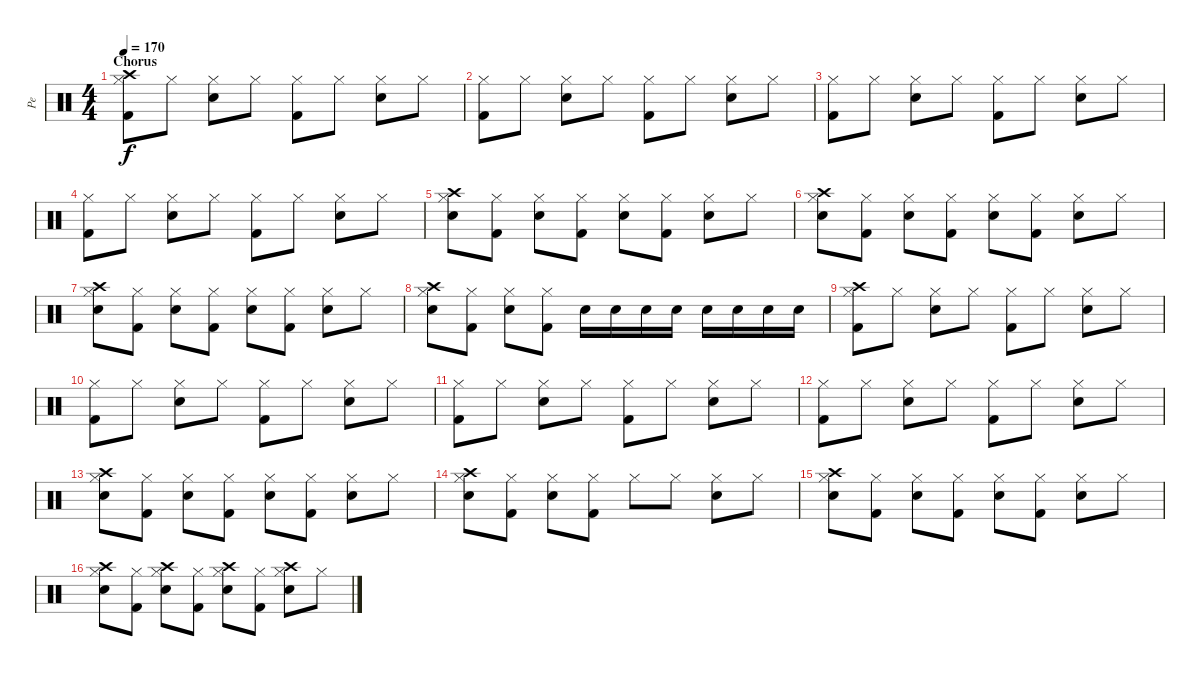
\track ("Pe" "Pe") {instrument percussion}
\staff {score}
\articulation defaults
\ts (4 4)
\section ("" "Chorus")
\tempo 170
\clef neutral
\ks c
("Crash high (hit)" "Hi-Hat (closed)" "Kick (hit) 2").8{dy f} "Hi-Hat (closed)".8 ("Hi-Hat (closed)" "Snare (hit) 2").8 "Hi-Hat (closed)".8 ("Hi-Hat (closed)" "Kick (hit) 2").8 "Hi-Hat (closed)".8 ("Hi-Hat (closed)" "Snare (hit) 2").8 "Hi-Hat (closed)".8 |
("Hi-Hat (closed)" "Kick (hit) 2").8 "Hi-Hat (closed)".8 ("Hi-Hat (closed)" "Snare (hit) 2").8 "Hi-Hat (closed)".8 ("Hi-Hat (closed)" "Kick (hit) 2").8 "Hi-Hat (closed)".8 ("Hi-Hat (closed)" "Snare (hit) 2").8 "Hi-Hat (closed)".8 |
("Hi-Hat (closed)" "Kick (hit) 2").8 "Hi-Hat (closed)".8 ("Hi-Hat (closed)" "Snare (hit) 2").8 "Hi-Hat (closed)".8 ("Hi-Hat (closed)" "Kick (hit) 2").8 "Hi-Hat (closed)".8 ("Hi-Hat (closed)" "Snare (hit) 2").8 "Hi-Hat (closed)".8 |
("Hi-Hat (closed)" "Kick (hit) 2").8 "Hi-Hat (closed)".8 ("Hi-Hat (closed)" "Snare (hit) 2").8 "Hi-Hat (closed)".8 ("Hi-Hat (closed)" "Kick (hit) 2").8 "Hi-Hat (closed)".8 ("Hi-Hat (closed)" "Snare (hit) 2").8 "Hi-Hat (closed)".8 |
("Crash high (hit)" "Hi-Hat (closed)" "Snare (hit) 2").8 ("Hi-Hat (closed)" "Kick (hit) 2").8 ("Hi-Hat (closed)" "Snare (hit) 2").8 ("Hi-Hat (closed)" "Kick (hit) 2").8 ("Hi-Hat (closed)" "Snare (hit) 2").8 ("Hi-Hat (closed)" "Kick (hit) 2").8 ("Hi-Hat (closed)" "Snare (hit) 2").8 "Hi-Hat (closed)".8 |
("Crash high (hit)" "Hi-Hat (closed)" "Snare (hit) 2").8 ("Hi-Hat (closed)" "Kick (hit) 2").8 ("Hi-Hat (closed)" "Snare (hit) 2").8 ("Hi-Hat (closed)" "Kick (hit) 2").8 ("Hi-Hat (closed)" "Snare (hit) 2").8 ("Hi-Hat (closed)" "Kick (hit) 2").8 ("Hi-Hat (closed)" "Snare (hit) 2").8 "Hi-Hat (closed)".8 |
("Crash high (hit)" "Hi-Hat (closed)" "Snare (hit) 2").8 ("Hi-Hat (closed)" "Kick (hit) 2").8 ("Hi-Hat (closed)" "Snare (hit) 2").8 ("Hi-Hat (closed)" "Kick (hit) 2").8 ("Hi-Hat (closed)" "Snare (hit) 2").8 ("Hi-Hat (closed)" "Kick (hit) 2").8 ("Hi-Hat (closed)" "Snare (hit) 2").8 "Hi-Hat (closed)".8 |
("Crash high (hit)" "Hi-Hat (closed)" "Snare (hit) 2").8 ("Hi-Hat (closed)" "Kick (hit) 2").8 ("Hi-Hat (closed)" "Snare (hit) 2").8 ("Hi-Hat (closed)" "Kick (hit) 2").8 "Snare (hit) 2".16 "Snare (hit) 2".16 "Snare (hit) 2".16 "Snare (hit) 2".16 "Snare (hit) 2".16 "Snare (hit) 2".16 "Snare (hit) 2".16 "Snare (hit) 2".16 |
("Crash high (hit)" "Hi-Hat (closed)" "Kick (hit) 2").8 "Hi-Hat (closed)".8 ("Hi-Hat (closed)" "Snare (hit) 2").8 "Hi-Hat (closed)".8 ("Hi-Hat (closed)" "Kick (hit) 2").8 "Hi-Hat (closed)".8 ("Hi-Hat (closed)" "Snare (hit) 2").8 "Hi-Hat (closed)".8 |
("Hi-Hat (closed)" "Kick (hit) 2").8 "Hi-Hat (closed)".8 ("Hi-Hat (closed)" "Snare (hit) 2").8 "Hi-Hat (closed)".8 ("Hi-Hat (closed)" "Kick (hit) 2").8 "Hi-Hat (closed)".8 ("Hi-Hat (closed)" "Snare (hit) 2").8 "Hi-Hat (closed)".8 |
("Hi-Hat (closed)" "Kick (hit) 2").8 "Hi-Hat (closed)".8 ("Hi-Hat (closed)" "Snare (hit) 2").8 "Hi-Hat (closed)".8 ("Hi-Hat (closed)" "Kick (hit) 2").8 "Hi-Hat (closed)".8 ("Hi-Hat (closed)" "Snare (hit) 2").8 "Hi-Hat (closed)".8 |
("Hi-Hat (closed)" "Kick (hit) 2").8 "Hi-Hat (closed)".8 ("Hi-Hat (closed)" "Snare (hit) 2").8 "Hi-Hat (closed)".8 ("Hi-Hat (closed)" "Kick (hit) 2").8 "Hi-Hat (closed)".8 ("Hi-Hat (closed)" "Snare (hit) 2").8 "Hi-Hat (closed)".8 |
("Crash high (hit)" "Hi-Hat (closed)" "Snare (hit) 2").8 ("Hi-Hat (closed)" "Kick (hit) 2").8 ("Hi-Hat (closed)" "Snare (hit) 2").8 ("Hi-Hat (closed)" "Kick (hit) 2").8 ("Hi-Hat (closed)" "Snare (hit) 2").8 ("Hi-Hat (closed)" "Kick (hit) 2").8 ("Hi-Hat (closed)" "Snare (hit) 2").8 "Hi-Hat (closed)".8 |
("Crash high (hit)" "Hi-Hat (closed)" "Snare (hit) 2").8 ("Hi-Hat (closed)" "Kick (hit) 2").8 ("Hi-Hat (closed)" "Snare (hit) 2").8 ("Hi-Hat (closed)" "Kick (hit) 2").8 "Hi-Hat (closed)".8 "Hi-Hat (closed)".8 ("Hi-Hat (closed)" "Snare (hit) 2").8 "Hi-Hat (closed)".8 |
("Crash high (hit)" "Hi-Hat (closed)" "Snare (hit) 2").8 ("Hi-Hat (closed)" "Kick (hit) 2").8 ("Hi-Hat (closed)" "Snare (hit) 2").8 ("Hi-Hat (closed)" "Kick (hit) 2").8 ("Hi-Hat (closed)" "Snare (hit) 2").8 ("Hi-Hat (closed)" "Kick (hit) 2").8 ("Hi-Hat (closed)" "Snare (hit) 2").8 "Hi-Hat (closed)".8 |
("Crash high (hit)" "Hi-Hat (closed)" "Snare (hit) 2").8 ("Hi-Hat (closed)" "Kick (hit) 2").8 ("Crash high (hit)" "Hi-Hat (closed)" "Snare (hit) 2").8 ("Hi-Hat (closed)" "Kick (hit) 2").8 ("Crash high (hit)" "Hi-Hat (closed)" "Snare (hit) 2").8 ("Hi-Hat (closed)" "Kick (hit) 2").8 ("Crash high (hit)" "Hi-Hat (closed)" "Snare (hit) 2").8 "Hi-Hat (closed)".8
